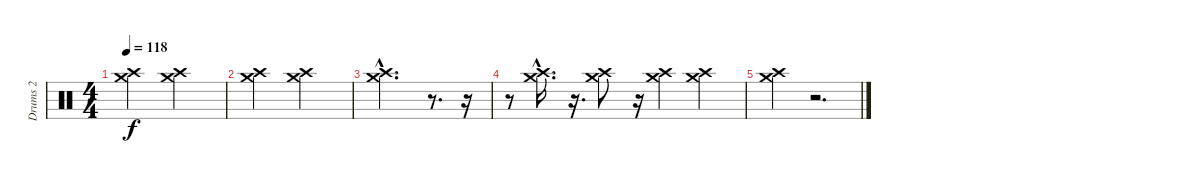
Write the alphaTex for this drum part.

\track ("Drums 2" "Drums 2") {instrument percussion}
\staff {score}
\articulation defaults
\ts (4 4)
\tempo 118
\clef neutral
\ks c
("Crash medium (hit)" "Crash high (hit)").2{dy f} ("Crash medium (hit)" "Crash high (hit)").2 |
("Crash medium (hit)" "Crash high (hit)").2 ("Crash medium (hit)" "Crash high (hit)").2 |
("Crash medium (hit)"{hac} "Crash high (hit)"{hac}).2{d} r.8{d} r.16 |
r.8 ("Crash medium (hit)"{hac} "Crash high (hit)"{hac}).16{d} r.16{d} ("Crash medium (hit)" "Crash high (hit)").8 r.16 ("Crash medium (hit)" "Crash high (hit)").4 ("Crash medium (hit)" "Crash high (hit)").4 |
("Crash medium (hit)" "Crash high (hit)").4{volume 10} r.2{d}
